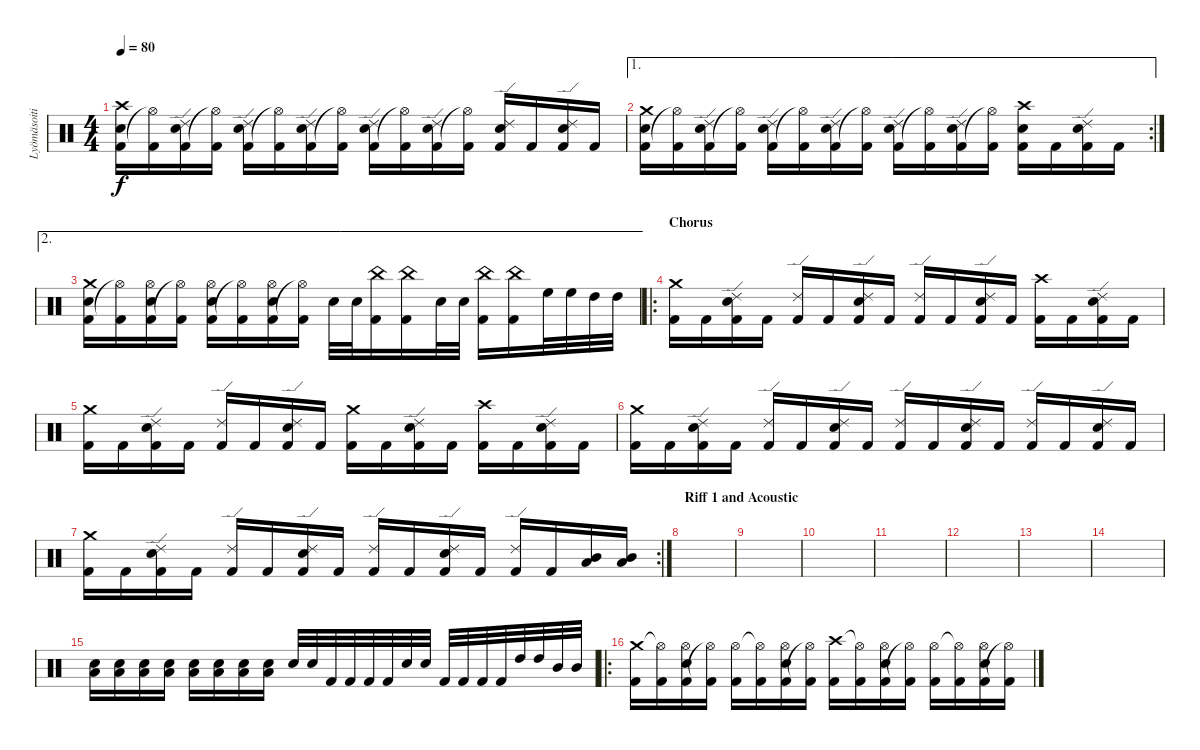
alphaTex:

\track ("Lyömäsoitin" "Lyömäsoiti") {instrument percussion}
\staff {score}
\articulation defaults
\ts (4 4)
\tempo 80
\clef neutral
\ks c
("Electric Snare (hit)" "Kick (hit) 2" "Crash high (hit)").16{dy f} ("Kick (hit) 2" "Hi-Hat (open)"{t}).16 ("Electric Snare (hit)" "Kick (hit) 2" "Ride (edge) 2").16 ("Kick (hit) 2" "Hi-Hat (open)"{t}).16 ("Electric Snare (hit)" "Kick (hit) 2" "Ride (edge) 2").16 ("Kick (hit) 2" "Hi-Hat (open)"{t}).16 ("Electric Snare (hit)" "Kick (hit) 2" "Ride (edge) 2").16 ("Kick (hit) 2" "Hi-Hat (open)"{t}).16 ("Electric Snare (hit)" "Kick (hit) 2" "Ride (edge) 2").16 ("Kick (hit) 2" "Hi-Hat (open)"{t}).16 ("Electric Snare (hit)" "Kick (hit) 2" "Ride (edge) 2").16 ("Kick (hit) 2" "Hi-Hat (open)"{t}).16 ("Electric Snare (hit)" "Kick (hit) 2" "Ride (edge) 2").16 "Kick (hit) 2".16 ("Electric Snare (hit)" "Kick (hit) 2" "Ride (edge) 2").16 "Kick (hit) 2".16 |
\ae 1
\rc 2
("Electric Snare (hit)" "Kick (hit) 2" "Crash medium (hit)").16 ("Kick (hit) 2" "Hi-Hat (open)"{t}).16 ("Electric Snare (hit)" "Kick (hit) 2" "Ride (edge) 2").16 ("Kick (hit) 2" "Hi-Hat (open)"{t}).16 ("Electric Snare (hit)" "Kick (hit) 2" "Ride (edge) 2").16 ("Kick (hit) 2" "Hi-Hat (open)"{t}).16 ("Electric Snare (hit)" "Kick (hit) 2" "Ride (edge) 2").16 ("Kick (hit) 2" "Hi-Hat (open)"{t}).16 ("Electric Snare (hit)" "Kick (hit) 2" "Ride (edge) 2").16 ("Kick (hit) 2" "Hi-Hat (open)"{t}).16 ("Electric Snare (hit)" "Kick (hit) 2" "Ride (edge) 2").16 ("Kick (hit) 2" "Hi-Hat (open)"{t}).16 ("Electric Snare (hit)" "Kick (hit) 2" "Crash high (hit)").16 "Kick (hit) 2".16 ("Electric Snare (hit)" "Kick (hit) 2" "Ride (edge) 2").16 "Kick (hit) 2".16 |
\ae 2
("Electric Snare (hit)" "Kick (hit) 2" "Crash medium (hit)").16 ("Kick (hit) 2" "Hi-Hat (open)"{t}).16 ("Electric Snare (hit)" "Kick (hit) 2" "Hi-Hat (open)").16 ("Kick (hit) 2" "Hi-Hat (open)"{t}).16 ("Electric Snare (hit)" "Kick (hit) 2" "Hi-Hat (open)").16 ("Kick (hit) 2" "Hi-Hat (open)"{t}).16 ("Electric Snare (hit)" "Kick (hit) 2" "Hi-Hat (open)").16 ("Kick (hit) 2" "Hi-Hat (open)"{t}).16 "Electric Snare (hit)".32 "Electric Snare (hit)".32 ("Kick (hit) 2" "China (hit)").16 ("Kick (hit) 2" "China (hit)").16 "Electric Snare (hit)".32 "Electric Snare (hit)".32 ("Kick (hit) 2" "China (hit)").16 ("Kick (hit) 2" "China (hit)").16 "High Floor Tom (hit)".32 "High Floor Tom (hit)".32 "High Tom (hit)".32 "High Tom (hit)".32 |
\ro
\section ("" "Chorus")
("Kick (hit) 2" "Crash medium (hit)").16 "Kick (hit) 2".16 ("Electric Snare (hit)" "Kick (hit) 2" "Ride (edge) 2").16 "Kick (hit) 2".16 ("Kick (hit) 2" "Ride (edge) 2").16 "Kick (hit) 2".16 ("Electric Snare (hit)" "Kick (hit) 2" "Ride (edge) 2").16 "Kick (hit) 2".16 ("Kick (hit) 2" "Ride (edge) 2").16 "Kick (hit) 2".16 ("Electric Snare (hit)" "Kick (hit) 2" "Ride (edge) 2").16 "Kick (hit) 2".16 ("Kick (hit) 2" "Crash high (hit)").16 "Kick (hit) 2".16 ("Electric Snare (hit)" "Kick (hit) 2" "Ride (edge) 2").16 "Kick (hit) 2".16 |
("Kick (hit) 2" "Crash medium (hit)").16 "Kick (hit) 2".16 ("Electric Snare (hit)" "Kick (hit) 2" "Ride (edge) 2").16 "Kick (hit) 2".16 ("Kick (hit) 2" "Ride (edge) 2").16 "Kick (hit) 2".16 ("Electric Snare (hit)" "Kick (hit) 2" "Ride (edge) 2").16 "Kick (hit) 2".16 ("Kick (hit) 2" "Crash medium (hit)").16 "Kick (hit) 2".16 ("Electric Snare (hit)" "Kick (hit) 2" "Ride (edge) 2").16 "Kick (hit) 2".16 ("Kick (hit) 2" "Crash high (hit)").16 "Kick (hit) 2".16 ("Electric Snare (hit)" "Kick (hit) 2" "Ride (edge) 2").16 "Kick (hit) 2".16 |
("Kick (hit) 2" "Crash medium (hit)").16 "Kick (hit) 2".16 ("Electric Snare (hit)" "Kick (hit) 2" "Ride (edge) 2").16 "Kick (hit) 2".16 ("Kick (hit) 2" "Ride (edge) 2").16 "Kick (hit) 2".16 ("Electric Snare (hit)" "Kick (hit) 2" "Ride (edge) 2").16 "Kick (hit) 2".16 ("Kick (hit) 2" "Ride (edge) 2").16 "Kick (hit) 2".16 ("Electric Snare (hit)" "Kick (hit) 2" "Ride (edge) 2").16 "Kick (hit) 2".16 ("Kick (hit) 2" "Ride (edge) 2").16 "Kick (hit) 2".16 ("Electric Snare (hit)" "Kick (hit) 2" "Ride (edge) 2").16 "Kick (hit) 2".16 |
\rc 2
("Kick (hit) 2" "Crash medium (hit)").16 "Kick (hit) 2".16 ("Electric Snare (hit)" "Kick (hit) 2" "Ride (edge) 2").16 "Kick (hit) 2".16 ("Kick (hit) 2" "Ride (edge) 2").16 "Kick (hit) 2".16 ("Electric Snare (hit)" "Kick (hit) 2" "Ride (edge) 2").16 "Kick (hit) 2".16 ("Kick (hit) 2" "Ride (edge) 2").16 "Kick (hit) 2".16 ("Electric Snare (hit)" "Kick (hit) 2" "Ride (edge) 2").16 "Kick (hit) 2".16 ("Kick (hit) 2" "Ride (edge) 2").16 "Kick (hit) 2".16 ("Mid Tom (hit)" "Low Tom (hit)").16 ("Mid Tom (hit)" "Low Tom (hit)").16 |
\section ("" "Riff 1 and Acoustic")
|
|
|
|
|
|
|
("Electric Snare (hit)" "Low Tom (hit)").16 ("Electric Snare (hit)" "Low Tom (hit)").16 ("Electric Snare (hit)" "Low Tom (hit)").16 ("Electric Snare (hit)" "Low Tom (hit)").16 ("Electric Snare (hit)" "Low Tom (hit)").16 ("Electric Snare (hit)" "Low Tom (hit)").16 ("Electric Snare (hit)" "Low Tom (hit)").16 ("Electric Snare (hit)" "Low Tom (hit)").16 "Electric Snare (hit)".32 "Electric Snare (hit)".32 "Kick (hit) 2".32 "Kick (hit) 2".32 "Kick (hit) 2".32 "Kick (hit) 2".32 "Electric Snare (hit)".32 "Electric Snare (hit)".32 "Kick (hit) 2".32 "Kick (hit) 2".32 "Kick (hit) 2".32 "Kick (hit) 2".32 "High Tom (hit)".32 "High Tom (hit)".32 "Mid Tom (hit)".32 "Mid Tom (hit)".32 |
\ro
("Kick (hit) 2" "Crash medium (hit)").16 ("Kick (hit) 2" "Hi-Hat (open)"{t}).16 ("Electric Snare (hit)" "Kick (hit) 2" "Hi-Hat (open)").16 ("Kick (hit) 2" "Hi-Hat (open)"{t}).16 ("Kick (hit) 2" "Hi-Hat (open)").16 ("Kick (hit) 2" "Hi-Hat (open)"{t}).16 ("Electric Snare (hit)" "Kick (hit) 2" "Hi-Hat (open)").16 ("Kick (hit) 2" "Hi-Hat (open)"{t}).16 ("Kick (hit) 2" "Crash high (hit)").16 ("Kick (hit) 2" "Hi-Hat (open)"{t}).16 ("Electric Snare (hit)" "Kick (hit) 2" "Hi-Hat (open)").16 ("Kick (hit) 2" "Hi-Hat (open)"{t}).16 ("Kick (hit) 2" "Hi-Hat (open)").16 ("Kick (hit) 2" "Hi-Hat (open)"{t}).16 ("Electric Snare (hit)" "Kick (hit) 2" "Hi-Hat (open)").16 ("Kick (hit) 2" "Hi-Hat (open)"{t}).16
